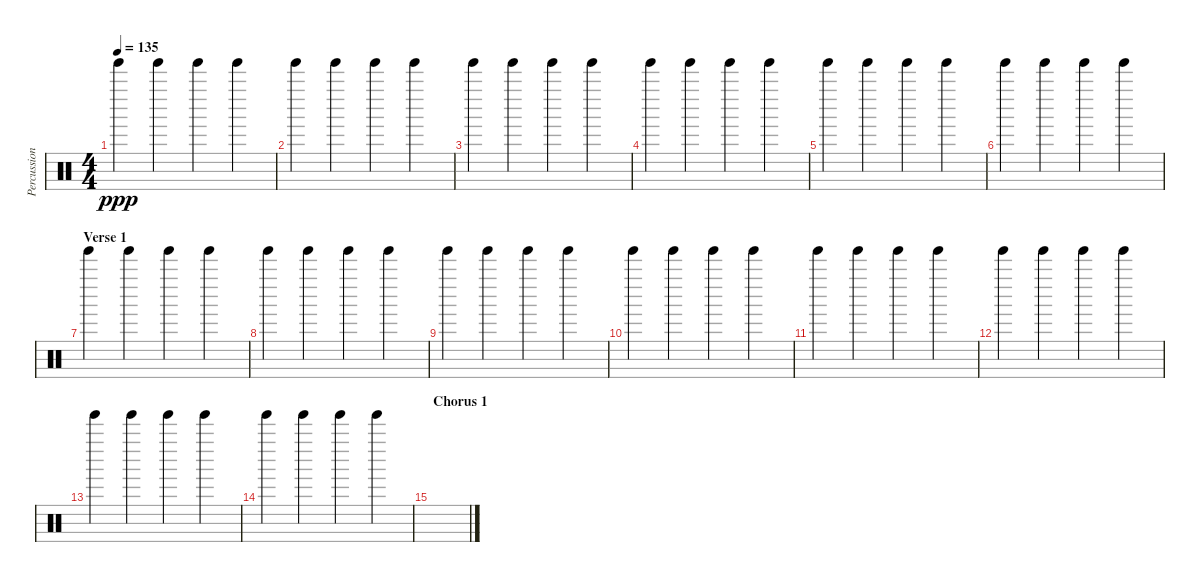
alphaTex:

\track ("Percussion" "Percussion") {instrument percussion}
\staff {score}
\articulation defaults
\ts (4 4)
\tempo 135
\clef neutral
\ks c "Tinkle Bell (hit)".4{dy ppp} "Tinkle Bell (hit)".4 "Tinkle Bell (hit)".4 "Tinkle Bell (hit)".4
|
"Tinkle Bell (hit)".4 "Tinkle Bell (hit)".4 "Tinkle Bell (hit)".4 "Tinkle Bell (hit)".4 |
"Tinkle Bell (hit)".4 "Tinkle Bell (hit)".4 "Tinkle Bell (hit)".4 "Tinkle Bell (hit)".4 |
"Tinkle Bell (hit)".4 "Tinkle Bell (hit)".4 "Tinkle Bell (hit)".4 "Tinkle Bell (hit)".4 |
"Tinkle Bell (hit)".4 "Tinkle Bell (hit)".4 "Tinkle Bell (hit)".4 "Tinkle Bell (hit)".4 |
"Tinkle Bell (hit)".4 "Tinkle Bell (hit)".4 "Tinkle Bell (hit)".4 "Tinkle Bell (hit)".4 |
\section ("" "Verse 1")
"Tinkle Bell (hit)".4 "Tinkle Bell (hit)".4 "Tinkle Bell (hit)".4 "Tinkle Bell (hit)".4 |
"Tinkle Bell (hit)".4 "Tinkle Bell (hit)".4 "Tinkle Bell (hit)".4 "Tinkle Bell (hit)".4 |
"Tinkle Bell (hit)".4 "Tinkle Bell (hit)".4 "Tinkle Bell (hit)".4 "Tinkle Bell (hit)".4 |
"Tinkle Bell (hit)".4 "Tinkle Bell (hit)".4 "Tinkle Bell (hit)".4 "Tinkle Bell (hit)".4 |
"Tinkle Bell (hit)".4 "Tinkle Bell (hit)".4 "Tinkle Bell (hit)".4 "Tinkle Bell (hit)".4 |
"Tinkle Bell (hit)".4 "Tinkle Bell (hit)".4 "Tinkle Bell (hit)".4 "Tinkle Bell (hit)".4 |
"Tinkle Bell (hit)".4 "Tinkle Bell (hit)".4 "Tinkle Bell (hit)".4 "Tinkle Bell (hit)".4 |
"Tinkle Bell (hit)".4 "Tinkle Bell (hit)".4 "Tinkle Bell (hit)".4 "Tinkle Bell (hit)".4 |
\section ("" "Chorus 1")
